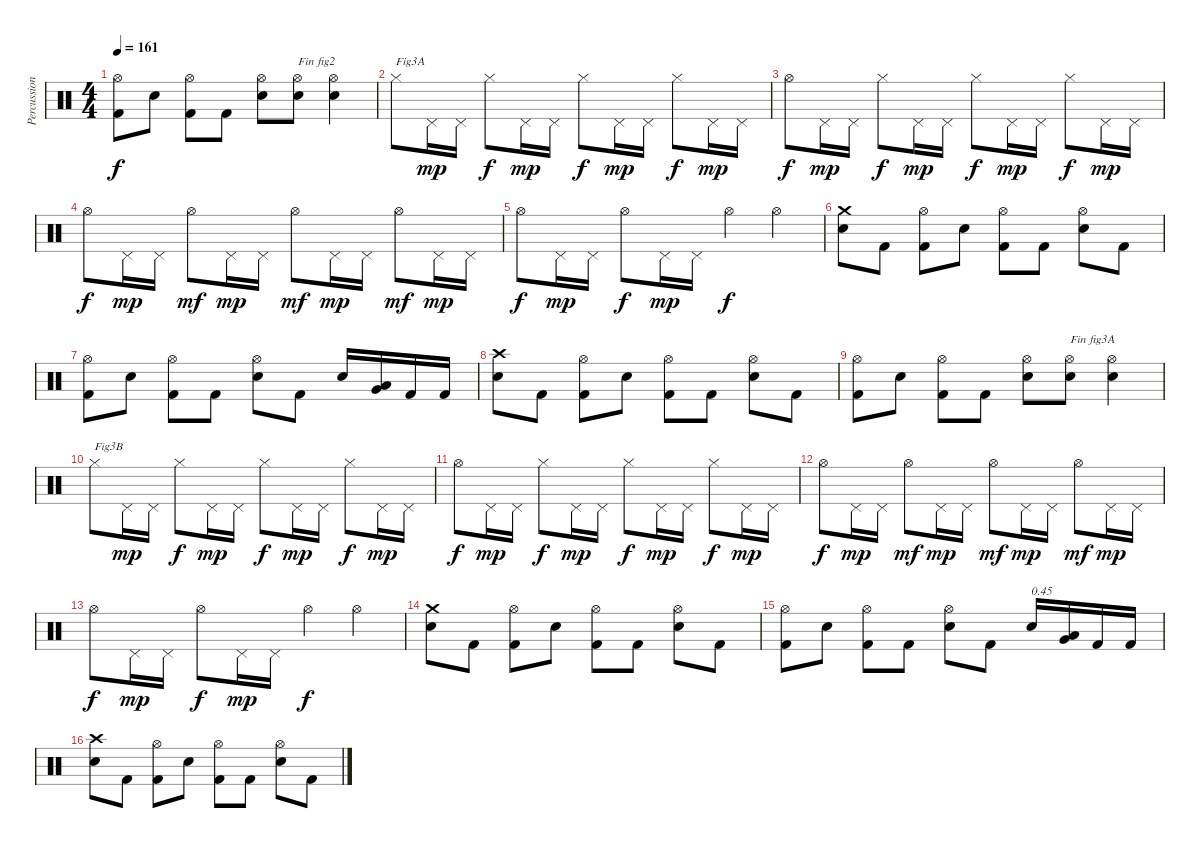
\track ("Percussions" "Percussion") {instrument percussion}
\staff {score}
\articulation defaults
\ts (4 4)
\tempo 161
\clef neutral
\ks c
("Kick (hit) 2" "Hi-Hat (open)").8{dy f} "Electric Snare (hit)".8 ("Kick (hit) 2" "Hi-Hat (open)").8 "Kick (hit) 2".8 ("Electric Snare (hit)" "Hi-Hat (open)").8 ("Electric Snare (hit)" "Hi-Hat (open)").8{txt "Fin fig2"} ("Electric Snare (hit)" "Hi-Hat (open)").4 |
"Hi-Hat (closed)".8{txt "Fig3A"} "Pedal Hi-Hat (hit)".16{dy mp} "Pedal Hi-Hat (hit)".16 "Hi-Hat (closed)".8{dy f} "Pedal Hi-Hat (hit)".16{dy mp} "Pedal Hi-Hat (hit)".16 "Hi-Hat (closed)".8{dy f} "Pedal Hi-Hat (hit)".16{dy mp} "Pedal Hi-Hat (hit)".16 "Hi-Hat (closed)".8{dy f} "Pedal Hi-Hat (hit)".16{dy mp} "Pedal Hi-Hat (hit)".16 |
"Hi-Hat (open)".8{dy f} "Pedal Hi-Hat (hit)".16{dy mp} "Pedal Hi-Hat (hit)".16 "Hi-Hat (closed)".8{dy f} "Pedal Hi-Hat (hit)".16{dy mp} "Pedal Hi-Hat (hit)".16 "Hi-Hat (closed)".8{dy f} "Pedal Hi-Hat (hit)".16{dy mp} "Pedal Hi-Hat (hit)".16 "Hi-Hat (closed)".8{dy f} "Pedal Hi-Hat (hit)".16{dy mp} "Pedal Hi-Hat (hit)".16 |
"Hi-Hat (open)".8{dy f} "Pedal Hi-Hat (hit)".16{dy mp} "Pedal Hi-Hat (hit)".16 "Hi-Hat (open)".8{dy mf} "Pedal Hi-Hat (hit)".16{dy mp} "Pedal Hi-Hat (hit)".16 "Hi-Hat (open)".8{dy mf} "Pedal Hi-Hat (hit)".16{dy mp} "Pedal Hi-Hat (hit)".16 "Hi-Hat (open)".8{dy mf} "Pedal Hi-Hat (hit)".16{dy mp} "Pedal Hi-Hat (hit)".16 |
"Hi-Hat (open)".8{dy f} "Pedal Hi-Hat (hit)".16{dy mp} "Pedal Hi-Hat (hit)".16 "Hi-Hat (open)".8{dy f} "Pedal Hi-Hat (hit)".16{dy mp} "Pedal Hi-Hat (hit)".16 "Hi-Hat (open)".4{dy f} "Hi-Hat (open)".4 |
("Electric Snare (hit)" "Crash medium (hit)").8 "Kick (hit) 2".8 ("Kick (hit) 2" "Hi-Hat (open)").8 "Electric Snare (hit)".8 ("Kick (hit) 2" "Hi-Hat (open)").8 "Kick (hit) 2".8 ("Electric Snare (hit)" "Hi-Hat (open)").8 "Kick (hit) 2".8 |
("Kick (hit) 2" "Hi-Hat (open)").8 "Electric Snare (hit)".8 ("Kick (hit) 2" "Hi-Hat (open)").8 "Kick (hit) 2".8 ("Electric Snare (hit)" "Hi-Hat (open)").8 "Kick (hit) 2".8 "Electric Snare (hit)".16 ("Very Low Tom (hit)" "Low Tom (hit)").16 "Kick (hit) 2".16 "Kick (hit) 2".16 |
("Electric Snare (hit)" "Crash high (hit)").8 "Kick (hit) 2".8 ("Kick (hit) 2" "Hi-Hat (open)").8 "Electric Snare (hit)".8 ("Kick (hit) 2" "Hi-Hat (open)").8 "Kick (hit) 2".8 ("Electric Snare (hit)" "Hi-Hat (open)").8 "Kick (hit) 2".8 |
("Kick (hit) 2" "Hi-Hat (open)").8 "Electric Snare (hit)".8 ("Kick (hit) 2" "Hi-Hat (open)").8 "Kick (hit) 2".8 ("Electric Snare (hit)" "Hi-Hat (open)").8 ("Electric Snare (hit)" "Hi-Hat (open)").8{txt "Fin fig3A"} ("Electric Snare (hit)" "Hi-Hat (open)").4 |
"Hi-Hat (closed)".8{txt "Fig3B"} "Pedal Hi-Hat (hit)".16{dy mp} "Pedal Hi-Hat (hit)".16 "Hi-Hat (closed)".8{dy f} "Pedal Hi-Hat (hit)".16{dy mp} "Pedal Hi-Hat (hit)".16 "Hi-Hat (closed)".8{dy f} "Pedal Hi-Hat (hit)".16{dy mp} "Pedal Hi-Hat (hit)".16 "Hi-Hat (closed)".8{dy f} "Pedal Hi-Hat (hit)".16{dy mp} "Pedal Hi-Hat (hit)".16 |
"Hi-Hat (open)".8{dy f} "Pedal Hi-Hat (hit)".16{dy mp} "Pedal Hi-Hat (hit)".16 "Hi-Hat (closed)".8{dy f} "Pedal Hi-Hat (hit)".16{dy mp} "Pedal Hi-Hat (hit)".16 "Hi-Hat (closed)".8{dy f} "Pedal Hi-Hat (hit)".16{dy mp} "Pedal Hi-Hat (hit)".16 "Hi-Hat (closed)".8{dy f} "Pedal Hi-Hat (hit)".16{dy mp} "Pedal Hi-Hat (hit)".16 |
"Hi-Hat (open)".8{dy f} "Pedal Hi-Hat (hit)".16{dy mp} "Pedal Hi-Hat (hit)".16 "Hi-Hat (open)".8{dy mf} "Pedal Hi-Hat (hit)".16{dy mp} "Pedal Hi-Hat (hit)".16 "Hi-Hat (open)".8{dy mf} "Pedal Hi-Hat (hit)".16{dy mp} "Pedal Hi-Hat (hit)".16 "Hi-Hat (open)".8{dy mf} "Pedal Hi-Hat (hit)".16{dy mp} "Pedal Hi-Hat (hit)".16 |
"Hi-Hat (open)".8{dy f} "Pedal Hi-Hat (hit)".16{dy mp} "Pedal Hi-Hat (hit)".16 "Hi-Hat (open)".8{dy f} "Pedal Hi-Hat (hit)".16{dy mp} "Pedal Hi-Hat (hit)".16 "Hi-Hat (open)".4{dy f} "Hi-Hat (open)".4 |
("Electric Snare (hit)" "Crash medium (hit)").8 "Kick (hit) 2".8 ("Kick (hit) 2" "Hi-Hat (open)").8 "Electric Snare (hit)".8 ("Kick (hit) 2" "Hi-Hat (open)").8 "Kick (hit) 2".8 ("Electric Snare (hit)" "Hi-Hat (open)").8 "Kick (hit) 2".8 |
("Kick (hit) 2" "Hi-Hat (open)").8 "Electric Snare (hit)".8 ("Kick (hit) 2" "Hi-Hat (open)").8 "Kick (hit) 2".8 ("Electric Snare (hit)" "Hi-Hat (open)").8 "Kick (hit) 2".8 "Electric Snare (hit)".16{txt "0.45"} ("Very Low Tom (hit)" "Low Tom (hit)").16 "Kick (hit) 2".16 "Kick (hit) 2".16 |
("Electric Snare (hit)" "Crash high (hit)").8 "Kick (hit) 2".8 ("Kick (hit) 2" "Hi-Hat (open)").8 "Electric Snare (hit)".8 ("Kick (hit) 2" "Hi-Hat (open)").8 "Kick (hit) 2".8 ("Electric Snare (hit)" "Hi-Hat (open)").8 "Kick (hit) 2".8
